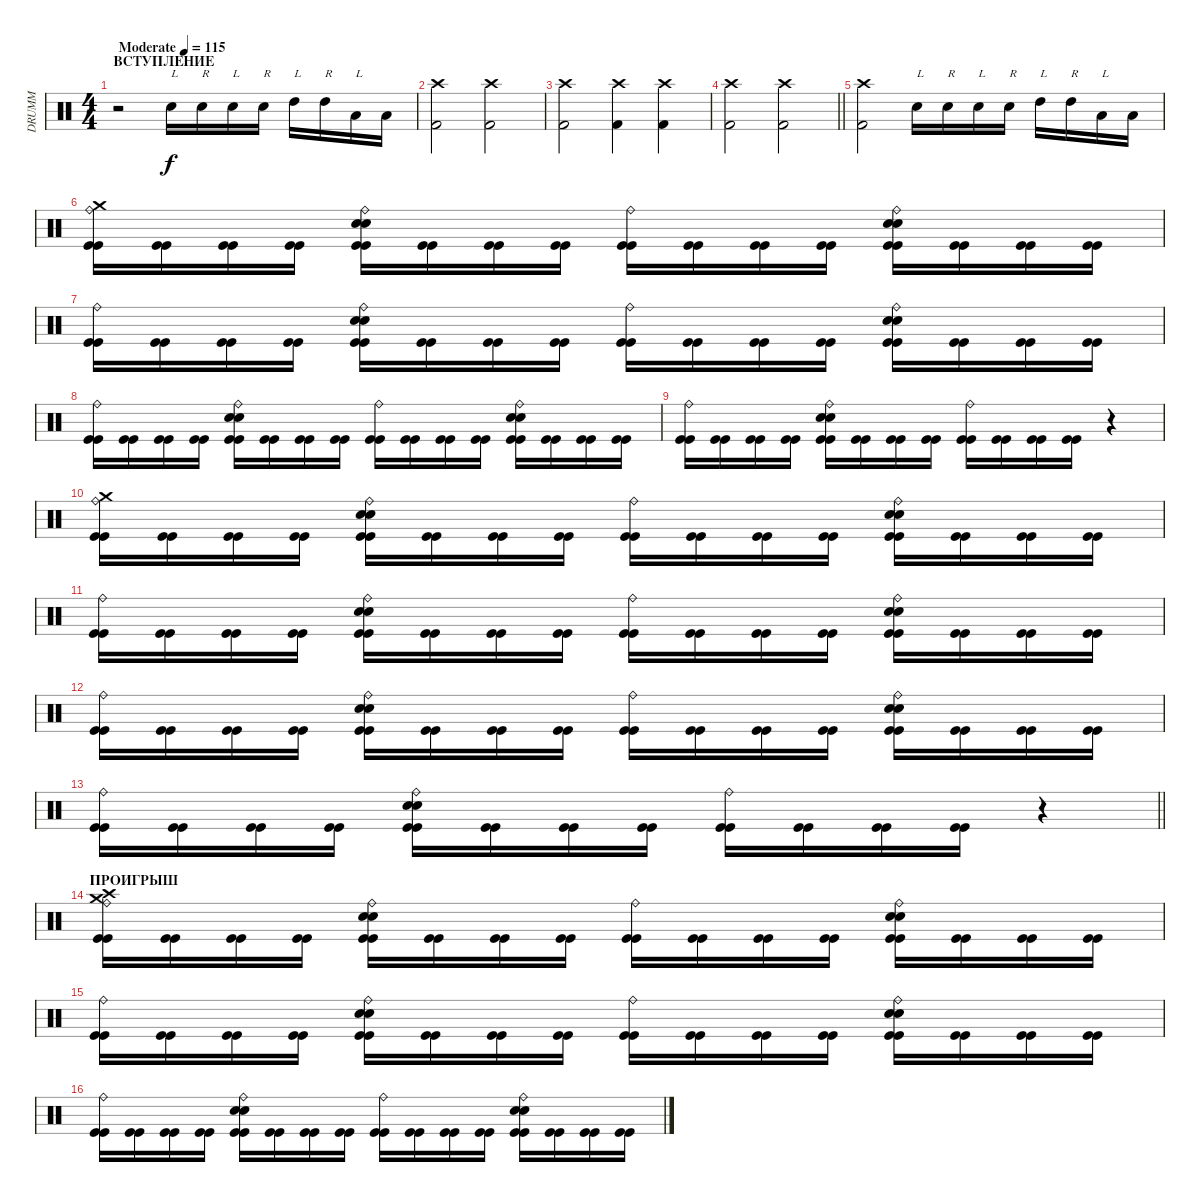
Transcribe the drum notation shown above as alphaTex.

\track ("DRUMM" "DRUMM") {instrument percussion}
\staff {score}
\articulation defaults
\ts (4 4)
\section ("" "ВСТУПЛЕНИЕ")
\tempo (115 "Moderate")
\clef neutral
\ks c
r.2{dy f} "Electric Snare (hit)".16{txt "L"} "Electric Snare (hit)".16{txt "R"} "Electric Snare (hit)".16{txt "L"} "Electric Snare (hit)".16{txt "R"} "High Tom (hit)".16{txt "L"} "High Tom (hit)".16{txt "R"} "Low Tom (hit)".16{txt "L"} "Low Tom (hit)".16 |
("Crash high (hit)" "Kick (hit) 2").2 ("Crash high (hit)" "Kick (hit) 2").2 |
("Crash high (hit)" "Kick (hit) 2").2 ("Crash high (hit)" "Kick (hit) 2").4 ("Crash high (hit)" "Kick (hit) 2").4 |
\barLineRight lightlight
("Crash high (hit)" "Kick (hit) 2").2 ("Crash high (hit)" "Kick (hit) 2").2 |
\section ("" "")
("Crash high (hit)" "Kick (hit) 2").2 "Electric Snare (hit)".16{txt "L"} "Electric Snare (hit)".16{txt "R"} "Electric Snare (hit)".16{txt "L"} "Electric Snare (hit)".16{txt "R"} "High Tom (hit)".16{txt "L"} "High Tom (hit)".16{txt "R"} "Low Tom (hit)".16{txt "L"} "Low Tom (hit)".16 |
("Ride (bell)" "Crash medium (hit)" "Kick (hit)" "Kick (hit)").16 ("Kick (hit)" "Kick (hit)").16 ("Kick (hit)" "Kick (hit)").16 ("Kick (hit)" "Kick (hit)").16 ("Ride (bell)" "Snare (hit) 2" "Snare (hit) 2" "Kick (hit)" "Kick (hit)").16 ("Kick (hit)" "Kick (hit)").16 ("Kick (hit)" "Kick (hit)").16 ("Kick (hit)" "Kick (hit)").16 ("Ride (bell)" "Kick (hit)" "Kick (hit)").16 ("Kick (hit)" "Kick (hit)").16 ("Kick (hit)" "Kick (hit)").16 ("Kick (hit)" "Kick (hit)").16 ("Ride (bell)" "Snare (hit) 2" "Snare (hit) 2" "Kick (hit)" "Kick (hit)").16 ("Kick (hit)" "Kick (hit)").16 ("Kick (hit)" "Kick (hit)").16 ("Kick (hit)" "Kick (hit)").16 |
("Ride (bell)" "Kick (hit)" "Kick (hit)").16 ("Kick (hit)" "Kick (hit)").16 ("Kick (hit)" "Kick (hit)").16 ("Kick (hit)" "Kick (hit)").16 ("Ride (bell)" "Snare (hit) 2" "Snare (hit) 2" "Kick (hit)" "Kick (hit)").16 ("Kick (hit)" "Kick (hit)").16 ("Kick (hit)" "Kick (hit)").16 ("Kick (hit)" "Kick (hit)").16 ("Ride (bell)" "Kick (hit)" "Kick (hit)").16 ("Kick (hit)" "Kick (hit)").16 ("Kick (hit)" "Kick (hit)").16 ("Kick (hit)" "Kick (hit)").16 ("Ride (bell)" "Snare (hit) 2" "Snare (hit) 2" "Kick (hit)" "Kick (hit)").16 ("Kick (hit)" "Kick (hit)").16 ("Kick (hit)" "Kick (hit)").16 ("Kick (hit)" "Kick (hit)").16 |
("Ride (bell)" "Kick (hit)" "Kick (hit)").16 ("Kick (hit)" "Kick (hit)").16 ("Kick (hit)" "Kick (hit)").16 ("Kick (hit)" "Kick (hit)").16 ("Ride (bell)" "Snare (hit) 2" "Snare (hit) 2" "Kick (hit)" "Kick (hit)").16 ("Kick (hit)" "Kick (hit)").16 ("Kick (hit)" "Kick (hit)").16 ("Kick (hit)" "Kick (hit)").16 ("Ride (bell)" "Kick (hit)" "Kick (hit)").16 ("Kick (hit)" "Kick (hit)").16 ("Kick (hit)" "Kick (hit)").16 ("Kick (hit)" "Kick (hit)").16 ("Ride (bell)" "Snare (hit) 2" "Snare (hit) 2" "Kick (hit)" "Kick (hit)").16 ("Kick (hit)" "Kick (hit)").16 ("Kick (hit)" "Kick (hit)").16 ("Kick (hit)" "Kick (hit)").16 |
("Ride (bell)" "Kick (hit)" "Kick (hit)").16 ("Kick (hit)" "Kick (hit)").16 ("Kick (hit)" "Kick (hit)").16 ("Kick (hit)" "Kick (hit)").16 ("Ride (bell)" "Snare (hit) 2" "Snare (hit) 2" "Kick (hit)" "Kick (hit)").16 ("Kick (hit)" "Kick (hit)").16 ("Kick (hit)" "Kick (hit)").16 ("Kick (hit)" "Kick (hit)").16 ("Ride (bell)" "Kick (hit)" "Kick (hit)").16 ("Kick (hit)" "Kick (hit)").16 ("Kick (hit)" "Kick (hit)").16 ("Kick (hit)" "Kick (hit)").16 r.4 |
("Ride (bell)" "Crash medium (hit)" "Kick (hit)" "Kick (hit)").16 ("Kick (hit)" "Kick (hit)").16 ("Kick (hit)" "Kick (hit)").16 ("Kick (hit)" "Kick (hit)").16 ("Ride (bell)" "Snare (hit) 2" "Snare (hit) 2" "Kick (hit)" "Kick (hit)").16 ("Kick (hit)" "Kick (hit)").16 ("Kick (hit)" "Kick (hit)").16 ("Kick (hit)" "Kick (hit)").16 ("Ride (bell)" "Kick (hit)" "Kick (hit)").16 ("Kick (hit)" "Kick (hit)").16 ("Kick (hit)" "Kick (hit)").16 ("Kick (hit)" "Kick (hit)").16 ("Ride (bell)" "Snare (hit) 2" "Snare (hit) 2" "Kick (hit)" "Kick (hit)").16 ("Kick (hit)" "Kick (hit)").16 ("Kick (hit)" "Kick (hit)").16 ("Kick (hit)" "Kick (hit)").16 |
("Ride (bell)" "Kick (hit)" "Kick (hit)").16 ("Kick (hit)" "Kick (hit)").16 ("Kick (hit)" "Kick (hit)").16 ("Kick (hit)" "Kick (hit)").16 ("Ride (bell)" "Snare (hit) 2" "Snare (hit) 2" "Kick (hit)" "Kick (hit)").16 ("Kick (hit)" "Kick (hit)").16 ("Kick (hit)" "Kick (hit)").16 ("Kick (hit)" "Kick (hit)").16 ("Ride (bell)" "Kick (hit)" "Kick (hit)").16 ("Kick (hit)" "Kick (hit)").16 ("Kick (hit)" "Kick (hit)").16 ("Kick (hit)" "Kick (hit)").16 ("Ride (bell)" "Snare (hit) 2" "Snare (hit) 2" "Kick (hit)" "Kick (hit)").16 ("Kick (hit)" "Kick (hit)").16 ("Kick (hit)" "Kick (hit)").16 ("Kick (hit)" "Kick (hit)").16 |
("Ride (bell)" "Kick (hit)" "Kick (hit)").16 ("Kick (hit)" "Kick (hit)").16 ("Kick (hit)" "Kick (hit)").16 ("Kick (hit)" "Kick (hit)").16 ("Ride (bell)" "Snare (hit) 2" "Snare (hit) 2" "Kick (hit)" "Kick (hit)").16 ("Kick (hit)" "Kick (hit)").16 ("Kick (hit)" "Kick (hit)").16 ("Kick (hit)" "Kick (hit)").16 ("Ride (bell)" "Kick (hit)" "Kick (hit)").16 ("Kick (hit)" "Kick (hit)").16 ("Kick (hit)" "Kick (hit)").16 ("Kick (hit)" "Kick (hit)").16 ("Ride (bell)" "Snare (hit) 2" "Snare (hit) 2" "Kick (hit)" "Kick (hit)").16 ("Kick (hit)" "Kick (hit)").16 ("Kick (hit)" "Kick (hit)").16 ("Kick (hit)" "Kick (hit)").16 |
\barLineRight lightlight
("Ride (bell)" "Kick (hit)" "Kick (hit)").16 ("Kick (hit)" "Kick (hit)").16 ("Kick (hit)" "Kick (hit)").16 ("Kick (hit)" "Kick (hit)").16 ("Ride (bell)" "Snare (hit) 2" "Snare (hit) 2" "Kick (hit)" "Kick (hit)").16 ("Kick (hit)" "Kick (hit)").16 ("Kick (hit)" "Kick (hit)").16 ("Kick (hit)" "Kick (hit)").16 ("Ride (bell)" "Kick (hit)" "Kick (hit)").16 ("Kick (hit)" "Kick (hit)").16 ("Kick (hit)" "Kick (hit)").16 ("Kick (hit)" "Kick (hit)").16 r.4 |
\section ("" "ПРОИГРЫШ")
("Ride (bell)" "Crash high (hit)" "Crash medium (hit)" "Kick (hit)" "Kick (hit)").16 ("Kick (hit)" "Kick (hit)").16 ("Kick (hit)" "Kick (hit)").16 ("Kick (hit)" "Kick (hit)").16 ("Ride (bell)" "Snare (hit) 2" "Snare (hit) 2" "Kick (hit)" "Kick (hit)").16 ("Kick (hit)" "Kick (hit)").16 ("Kick (hit)" "Kick (hit)").16 ("Kick (hit)" "Kick (hit)").16 ("Ride (bell)" "Kick (hit)" "Kick (hit)").16 ("Kick (hit)" "Kick (hit)").16 ("Kick (hit)" "Kick (hit)").16 ("Kick (hit)" "Kick (hit)").16 ("Ride (bell)" "Snare (hit) 2" "Snare (hit) 2" "Kick (hit)" "Kick (hit)").16 ("Kick (hit)" "Kick (hit)").16 ("Kick (hit)" "Kick (hit)").16 ("Kick (hit)" "Kick (hit)").16 |
("Ride (bell)" "Kick (hit)" "Kick (hit)").16 ("Kick (hit)" "Kick (hit)").16 ("Kick (hit)" "Kick (hit)").16 ("Kick (hit)" "Kick (hit)").16 ("Ride (bell)" "Snare (hit) 2" "Snare (hit) 2" "Kick (hit)" "Kick (hit)").16 ("Kick (hit)" "Kick (hit)").16 ("Kick (hit)" "Kick (hit)").16 ("Kick (hit)" "Kick (hit)").16 ("Ride (bell)" "Kick (hit)" "Kick (hit)").16 ("Kick (hit)" "Kick (hit)").16 ("Kick (hit)" "Kick (hit)").16 ("Kick (hit)" "Kick (hit)").16 ("Ride (bell)" "Snare (hit) 2" "Snare (hit) 2" "Kick (hit)" "Kick (hit)").16 ("Kick (hit)" "Kick (hit)").16 ("Kick (hit)" "Kick (hit)").16 ("Kick (hit)" "Kick (hit)").16 |
("Ride (bell)" "Kick (hit)" "Kick (hit)").16 ("Kick (hit)" "Kick (hit)").16 ("Kick (hit)" "Kick (hit)").16 ("Kick (hit)" "Kick (hit)").16 ("Ride (bell)" "Snare (hit) 2" "Snare (hit) 2" "Kick (hit)" "Kick (hit)").16 ("Kick (hit)" "Kick (hit)").16 ("Kick (hit)" "Kick (hit)").16 ("Kick (hit)" "Kick (hit)").16 ("Ride (bell)" "Kick (hit)" "Kick (hit)").16 ("Kick (hit)" "Kick (hit)").16 ("Kick (hit)" "Kick (hit)").16 ("Kick (hit)" "Kick (hit)").16 ("Ride (bell)" "Snare (hit) 2" "Snare (hit) 2" "Kick (hit)" "Kick (hit)").16 ("Kick (hit)" "Kick (hit)").16 ("Kick (hit)" "Kick (hit)").16 ("Kick (hit)" "Kick (hit)").16
